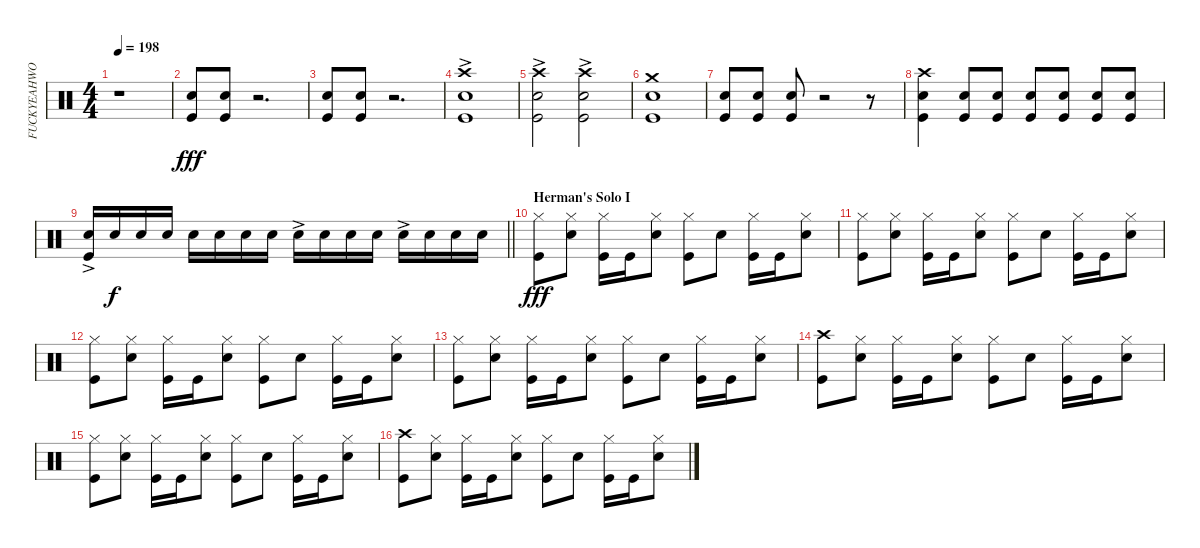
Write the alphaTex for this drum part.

\track ("FUCKYEAHWOOTDAVEMACKINTOSH!(Percussion)" "FUCKYEAHWO") {instrument percussion}
\staff {score}
\articulation defaults
\ts (4 4)
\tempo 198
\clef neutral
\ks c
r.1{dy f} |
("Snare (hit) 2" "Kick (hit)").8{dy fff} ("Snare (hit) 2" "Kick (hit)").8 r.2{d} |
("Snare (hit) 2" "Kick (hit)").8 ("Snare (hit) 2" "Kick (hit)").8 r.2{d} |
("Snare (hit) 2" "Kick (hit)" "Crash high (hit)"{ac}).1 |
("Snare (hit) 2" "Kick (hit)" "Crash high (hit)"{ac}).2 ("Snare (hit) 2" "Kick (hit)" "Crash high (hit)"{ac}).2 |
("Snare (hit) 2" "Kick (hit)" "Crash medium (hit)").1 |
("Snare (hit) 2" "Kick (hit)").8 ("Snare (hit) 2" "Kick (hit)").8 ("Snare (hit) 2" "Kick (hit)").8 r.2 r.8 |
("Snare (hit) 2" "Kick (hit)" "Crash high (hit)").4 ("Snare (hit) 2" "Kick (hit)").8 ("Snare (hit) 2" "Kick (hit)").8 ("Snare (hit) 2" "Kick (hit)").8 ("Kick (hit)" "Snare (hit) 2").8 ("Snare (hit) 2" "Kick (hit)").8 ("Snare (hit) 2" "Kick (hit)").8 |
\barLineRight lightlight
("Kick (hit)" "Snare (hit) 2"{ac}).16 "Snare (hit) 2".16{dy f} "Snare (hit) 2".16 "Snare (hit) 2".16 "Snare (hit) 2".16 "Snare (hit) 2".16 "Snare (hit) 2".16 "Snare (hit) 2".16 "Snare (hit) 2"{ac}.16 "Snare (hit) 2".16 "Snare (hit) 2".16 "Snare (hit) 2".16 "Snare (hit) 2"{ac}.16 "Snare (hit) 2".16 "Snare (hit) 2".16 "Snare (hit) 2".16 |
\section ("" "Herman's Solo I")
("Kick (hit)" "Hi-Hat (closed)").8{dy fff} ("Snare (hit) 2" "Hi-Hat (closed)").8 ("Kick (hit)" "Hi-Hat (closed)").16 "Kick (hit)".16 ("Snare (hit) 2" "Hi-Hat (closed)").8 ("Kick (hit)" "Hi-Hat (closed)").8 "Snare (hit) 2".8 ("Kick (hit)" "Hi-Hat (closed)").16 "Kick (hit)".16 ("Snare (hit) 2" "Hi-Hat (closed)").8 |
("Kick (hit)" "Hi-Hat (closed)").8 ("Snare (hit) 2" "Hi-Hat (closed)").8 ("Kick (hit)" "Hi-Hat (closed)").16 "Kick (hit)".16 ("Snare (hit) 2" "Hi-Hat (closed)").8 ("Kick (hit)" "Hi-Hat (closed)").8 "Snare (hit) 2".8 ("Kick (hit)" "Hi-Hat (closed)").16 "Kick (hit)".16 ("Snare (hit) 2" "Hi-Hat (closed)").8 |
("Kick (hit)" "Hi-Hat (closed)").8 ("Snare (hit) 2" "Hi-Hat (closed)").8 ("Kick (hit)" "Hi-Hat (closed)").16 "Kick (hit)".16 ("Snare (hit) 2" "Hi-Hat (closed)").8 ("Kick (hit)" "Hi-Hat (closed)").8 "Snare (hit) 2".8 ("Kick (hit)" "Hi-Hat (closed)").16 "Kick (hit)".16 ("Snare (hit) 2" "Hi-Hat (closed)").8 |
("Kick (hit)" "Hi-Hat (closed)").8 ("Snare (hit) 2" "Hi-Hat (closed)").8 ("Kick (hit)" "Hi-Hat (closed)").16 "Kick (hit)".16 ("Snare (hit) 2" "Hi-Hat (closed)").8 ("Kick (hit)" "Hi-Hat (closed)").8 "Snare (hit) 2".8 ("Kick (hit)" "Hi-Hat (closed)").16 "Kick (hit)".16 ("Snare (hit) 2" "Hi-Hat (closed)").8 |
("Kick (hit)" "Crash high (hit)").8 ("Snare (hit) 2" "Hi-Hat (closed)").8 ("Kick (hit)" "Hi-Hat (closed)").16 "Kick (hit)".16 ("Snare (hit) 2" "Hi-Hat (closed)").8 ("Kick (hit)" "Hi-Hat (closed)").8 "Snare (hit) 2".8 ("Kick (hit)" "Hi-Hat (closed)").16 "Kick (hit)".16 ("Snare (hit) 2" "Hi-Hat (closed)").8 |
("Kick (hit)" "Hi-Hat (closed)").8 ("Snare (hit) 2" "Hi-Hat (closed)").8 ("Kick (hit)" "Hi-Hat (closed)").16 "Kick (hit)".16 ("Snare (hit) 2" "Hi-Hat (closed)").8 ("Kick (hit)" "Hi-Hat (closed)").8 "Snare (hit) 2".8 ("Kick (hit)" "Hi-Hat (closed)").16 "Kick (hit)".16 ("Snare (hit) 2" "Hi-Hat (closed)").8 |
("Kick (hit)" "Crash high (hit)").8 ("Snare (hit) 2" "Hi-Hat (closed)").8 ("Kick (hit)" "Hi-Hat (closed)").16 "Kick (hit)".16 ("Snare (hit) 2" "Hi-Hat (closed)").8 ("Kick (hit)" "Hi-Hat (closed)").8 "Snare (hit) 2".8 ("Kick (hit)" "Hi-Hat (closed)").16 "Kick (hit)".16 ("Snare (hit) 2" "Hi-Hat (closed)").8
